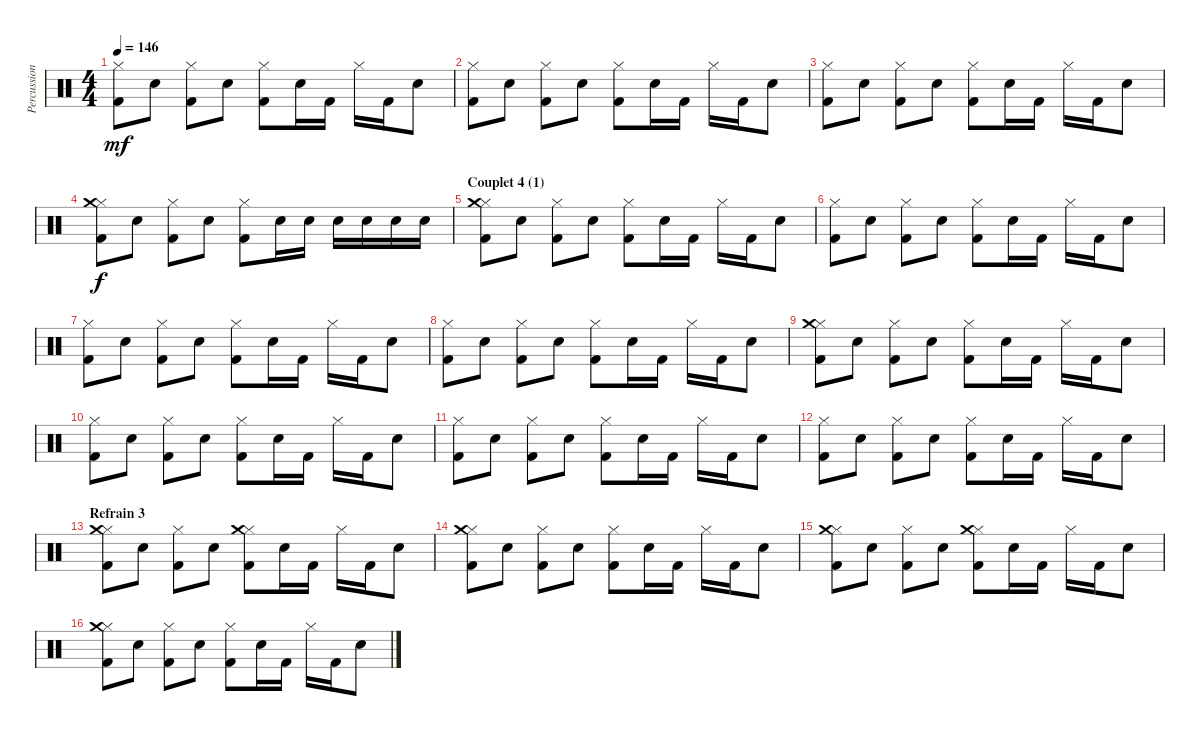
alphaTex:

\track ("Percussions" "Percussion") {instrument percussion}
\staff {score}
\articulation defaults
\ts (4 4)
\tempo 146
\clef neutral
\ks c
("Hi-Hat (closed)" "Kick (hit) 2").8{dy mf} "Electric Snare (hit)".8 ("Hi-Hat (closed)" "Kick (hit) 2").8 "Electric Snare (hit)".8 ("Hi-Hat (closed)" "Kick (hit) 2").8 "Electric Snare (hit)".16 "Kick (hit) 2".16 "Hi-Hat (closed)".16 "Kick (hit) 2".16 "Electric Snare (hit)".8 |
("Hi-Hat (closed)" "Kick (hit) 2").8 "Electric Snare (hit)".8 ("Hi-Hat (closed)" "Kick (hit) 2").8 "Electric Snare (hit)".8 ("Hi-Hat (closed)" "Kick (hit) 2").8 "Electric Snare (hit)".16 "Kick (hit) 2".16 "Hi-Hat (closed)".16 "Kick (hit) 2".16 "Electric Snare (hit)".8 |
("Hi-Hat (closed)" "Kick (hit) 2").8 "Electric Snare (hit)".8 ("Hi-Hat (closed)" "Kick (hit) 2").8 "Electric Snare (hit)".8 ("Hi-Hat (closed)" "Kick (hit) 2").8 "Electric Snare (hit)".16 "Kick (hit) 2".16 "Hi-Hat (closed)".16 "Kick (hit) 2".16 "Electric Snare (hit)".8 |
("Hi-Hat (closed)" "Crash medium (hit)" "Kick (hit) 2").8{dy f} "Electric Snare (hit)".8 ("Hi-Hat (closed)" "Kick (hit) 2").8 "Electric Snare (hit)".8 ("Hi-Hat (closed)" "Kick (hit) 2").8 "Electric Snare (hit)".16 "Electric Snare (hit)".16 "Electric Snare (hit)".16 "Electric Snare (hit)".16 "Electric Snare (hit)".16 "Electric Snare (hit)".16 |
\section ("" "Couplet 4 (1)")
("Hi-Hat (closed)" "Crash medium (hit)" "Kick (hit) 2").8 "Electric Snare (hit)".8 ("Hi-Hat (closed)" "Kick (hit) 2").8 "Electric Snare (hit)".8 ("Hi-Hat (closed)" "Kick (hit) 2").8 "Electric Snare (hit)".16 "Kick (hit) 2".16 "Hi-Hat (closed)".16 "Kick (hit) 2".16 "Electric Snare (hit)".8 |
("Hi-Hat (closed)" "Kick (hit) 2").8 "Electric Snare (hit)".8 ("Hi-Hat (closed)" "Kick (hit) 2").8 "Electric Snare (hit)".8 ("Hi-Hat (closed)" "Kick (hit) 2").8 "Electric Snare (hit)".16 "Kick (hit) 2".16 "Hi-Hat (closed)".16 "Kick (hit) 2".16 "Electric Snare (hit)".8 |
("Hi-Hat (closed)" "Kick (hit) 2").8 "Electric Snare (hit)".8 ("Hi-Hat (closed)" "Kick (hit) 2").8 "Electric Snare (hit)".8 ("Hi-Hat (closed)" "Kick (hit) 2").8 "Electric Snare (hit)".16 "Kick (hit) 2".16 "Hi-Hat (closed)".16 "Kick (hit) 2".16 "Electric Snare (hit)".8 |
("Hi-Hat (closed)" "Kick (hit) 2").8 "Electric Snare (hit)".8 ("Hi-Hat (closed)" "Kick (hit) 2").8 "Electric Snare (hit)".8 ("Hi-Hat (closed)" "Kick (hit) 2").8 "Electric Snare (hit)".16 "Kick (hit) 2".16 "Hi-Hat (closed)".16 "Kick (hit) 2".16 "Electric Snare (hit)".8 |
("Hi-Hat (closed)" "Crash medium (hit)" "Kick (hit) 2").8 "Electric Snare (hit)".8 ("Hi-Hat (closed)" "Kick (hit) 2").8 "Electric Snare (hit)".8 ("Hi-Hat (closed)" "Kick (hit) 2").8 "Electric Snare (hit)".16 "Kick (hit) 2".16 "Hi-Hat (closed)".16 "Kick (hit) 2".16 "Electric Snare (hit)".8 |
("Hi-Hat (closed)" "Kick (hit) 2").8 "Electric Snare (hit)".8 ("Hi-Hat (closed)" "Kick (hit) 2").8 "Electric Snare (hit)".8 ("Hi-Hat (closed)" "Kick (hit) 2").8 "Electric Snare (hit)".16 "Kick (hit) 2".16 "Hi-Hat (closed)".16 "Kick (hit) 2".16 "Electric Snare (hit)".8 |
("Hi-Hat (closed)" "Kick (hit) 2").8 "Electric Snare (hit)".8 ("Hi-Hat (closed)" "Kick (hit) 2").8 "Electric Snare (hit)".8 ("Hi-Hat (closed)" "Kick (hit) 2").8 "Electric Snare (hit)".16 "Kick (hit) 2".16 "Hi-Hat (closed)".16 "Kick (hit) 2".16 "Electric Snare (hit)".8 |
("Hi-Hat (closed)" "Kick (hit) 2").8 "Electric Snare (hit)".8 ("Hi-Hat (closed)" "Kick (hit) 2").8 "Electric Snare (hit)".8 ("Hi-Hat (closed)" "Kick (hit) 2").8 "Electric Snare (hit)".16 "Kick (hit) 2".16 "Hi-Hat (closed)".16 "Kick (hit) 2".16 "Electric Snare (hit)".8 |
\section ("" "Refrain 3")
("Hi-Hat (closed)" "Crash medium (hit)" "Kick (hit) 2").8 "Electric Snare (hit)".8 ("Hi-Hat (closed)" "Kick (hit) 2").8 "Electric Snare (hit)".8 ("Hi-Hat (closed)" "Crash medium (hit)" "Kick (hit) 2").8 "Electric Snare (hit)".16 "Kick (hit) 2".16 "Hi-Hat (closed)".16 "Kick (hit) 2".16 "Electric Snare (hit)".8 |
("Hi-Hat (closed)" "Crash medium (hit)" "Kick (hit) 2").8 "Electric Snare (hit)".8 ("Hi-Hat (closed)" "Kick (hit) 2").8 "Electric Snare (hit)".8 ("Hi-Hat (closed)" "Kick (hit) 2").8 "Electric Snare (hit)".16 "Kick (hit) 2".16 "Hi-Hat (closed)".16 "Kick (hit) 2".16 "Electric Snare (hit)".8 |
("Hi-Hat (closed)" "Crash medium (hit)" "Kick (hit) 2").8 "Electric Snare (hit)".8 ("Hi-Hat (closed)" "Kick (hit) 2").8 "Electric Snare (hit)".8 ("Hi-Hat (closed)" "Crash medium (hit)" "Kick (hit) 2").8 "Electric Snare (hit)".16 "Kick (hit) 2".16 "Hi-Hat (closed)".16 "Kick (hit) 2".16 "Electric Snare (hit)".8 |
("Hi-Hat (closed)" "Crash medium (hit)" "Kick (hit) 2").8 "Electric Snare (hit)".8 ("Hi-Hat (closed)" "Kick (hit) 2").8 "Electric Snare (hit)".8 ("Hi-Hat (closed)" "Kick (hit) 2").8 "Electric Snare (hit)".16 "Kick (hit) 2".16 "Hi-Hat (closed)".16 "Kick (hit) 2".16 "Electric Snare (hit)".8
